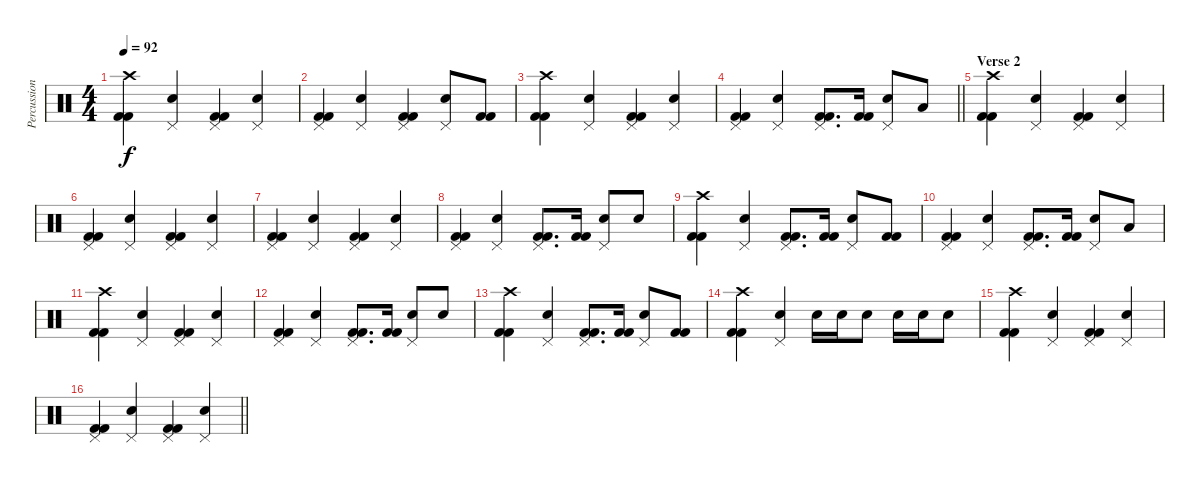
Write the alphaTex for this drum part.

\track ("Percussion" "Percussion") {instrument percussion}
\staff {score}
\articulation defaults
\ts (4 4)
\tempo 92
\clef neutral
\ks c
("Crash high (hit)" "Kick (hit) 2" "Kick (hit) 2").4{dy f} ("Pedal Hi-Hat (hit)" "Electric Snare (hit)").4 ("Pedal Hi-Hat (hit)" "Kick (hit) 2" "Kick (hit) 2").4 ("Pedal Hi-Hat (hit)" "Electric Snare (hit)").4 |
("Pedal Hi-Hat (hit)" "Kick (hit) 2" "Kick (hit) 2").4 ("Pedal Hi-Hat (hit)" "Electric Snare (hit)").4 ("Pedal Hi-Hat (hit)" "Kick (hit) 2" "Kick (hit) 2").4 ("Pedal Hi-Hat (hit)" "Electric Snare (hit)").8 ("Kick (hit) 2" "Kick (hit) 2").8 |
("Crash high (hit)" "Kick (hit) 2" "Kick (hit) 2").4 ("Pedal Hi-Hat (hit)" "Electric Snare (hit)").4 ("Pedal Hi-Hat (hit)" "Kick (hit) 2" "Kick (hit) 2").4 ("Pedal Hi-Hat (hit)" "Electric Snare (hit)").4 |
\barLineRight lightlight
("Pedal Hi-Hat (hit)" "Kick (hit) 2" "Kick (hit) 2").4 ("Pedal Hi-Hat (hit)" "Electric Snare (hit)").4 ("Pedal Hi-Hat (hit)" "Kick (hit) 2" "Kick (hit) 2").8{d} ("Kick (hit) 2" "Kick (hit) 2").16 ("Pedal Hi-Hat (hit)" "Electric Snare (hit)").8 "Low Tom (hit)".8 |
\section ("" "Verse 2")
("Crash high (hit)" "Kick (hit) 2" "Kick (hit) 2").4 ("Pedal Hi-Hat (hit)" "Electric Snare (hit)").4 ("Pedal Hi-Hat (hit)" "Kick (hit) 2" "Kick (hit) 2").4 ("Pedal Hi-Hat (hit)" "Electric Snare (hit)").4 |
("Pedal Hi-Hat (hit)" "Kick (hit) 2" "Kick (hit) 2").4 ("Pedal Hi-Hat (hit)" "Electric Snare (hit)").4 ("Pedal Hi-Hat (hit)" "Kick (hit) 2" "Kick (hit) 2").4 ("Pedal Hi-Hat (hit)" "Electric Snare (hit)").4 |
("Pedal Hi-Hat (hit)" "Kick (hit) 2" "Kick (hit) 2").4 ("Pedal Hi-Hat (hit)" "Electric Snare (hit)").4 ("Pedal Hi-Hat (hit)" "Kick (hit) 2" "Kick (hit) 2").4 ("Pedal Hi-Hat (hit)" "Electric Snare (hit)").4 |
("Pedal Hi-Hat (hit)" "Kick (hit) 2" "Kick (hit) 2").4 ("Pedal Hi-Hat (hit)" "Electric Snare (hit)").4 ("Pedal Hi-Hat (hit)" "Kick (hit) 2" "Kick (hit) 2").8{d} ("Kick (hit) 2" "Kick (hit) 2").16 ("Pedal Hi-Hat (hit)" "Electric Snare (hit)").8 "Electric Snare (hit)".8 |
("Crash high (hit)" "Kick (hit) 2" "Kick (hit) 2").4 ("Pedal Hi-Hat (hit)" "Electric Snare (hit)").4 ("Pedal Hi-Hat (hit)" "Kick (hit) 2" "Kick (hit) 2").8{d} ("Kick (hit) 2" "Kick (hit) 2").16 ("Pedal Hi-Hat (hit)" "Electric Snare (hit)").8 ("Kick (hit) 2" "Kick (hit) 2").8 |
("Pedal Hi-Hat (hit)" "Kick (hit) 2" "Kick (hit) 2").4 ("Pedal Hi-Hat (hit)" "Electric Snare (hit)").4 ("Pedal Hi-Hat (hit)" "Kick (hit) 2" "Kick (hit) 2").8{d} ("Kick (hit) 2" "Kick (hit) 2").16 ("Pedal Hi-Hat (hit)" "Electric Snare (hit)").8 "Low Tom (hit)".8 |
("Crash high (hit)" "Kick (hit) 2" "Kick (hit) 2").4 ("Pedal Hi-Hat (hit)" "Electric Snare (hit)").4 ("Pedal Hi-Hat (hit)" "Kick (hit) 2" "Kick (hit) 2").4 ("Pedal Hi-Hat (hit)" "Electric Snare (hit)").4 |
("Pedal Hi-Hat (hit)" "Kick (hit) 2" "Kick (hit) 2").4 ("Pedal Hi-Hat (hit)" "Electric Snare (hit)").4 ("Pedal Hi-Hat (hit)" "Kick (hit) 2" "Kick (hit) 2").8{d} ("Kick (hit) 2" "Kick (hit) 2").16 ("Pedal Hi-Hat (hit)" "Electric Snare (hit)").8 "Electric Snare (hit)".8 |
("Crash high (hit)" "Kick (hit) 2" "Kick (hit) 2").4 ("Pedal Hi-Hat (hit)" "Electric Snare (hit)").4 ("Pedal Hi-Hat (hit)" "Kick (hit) 2" "Kick (hit) 2").8{d} ("Kick (hit) 2" "Kick (hit) 2").16 ("Pedal Hi-Hat (hit)" "Electric Snare (hit)").8 ("Kick (hit) 2" "Kick (hit) 2").8 |
("Crash high (hit)" "Kick (hit) 2" "Kick (hit) 2").4 ("Pedal Hi-Hat (hit)" "Electric Snare (hit)").4 "Electric Snare (hit)".16 "Electric Snare (hit)".16 "Electric Snare (hit)".8 "Electric Snare (hit)".16 "Electric Snare (hit)".16 "Electric Snare (hit)".8 |
("Crash high (hit)" "Kick (hit) 2" "Kick (hit) 2").4 ("Pedal Hi-Hat (hit)" "Electric Snare (hit)").4 ("Pedal Hi-Hat (hit)" "Kick (hit) 2" "Kick (hit) 2").4 ("Pedal Hi-Hat (hit)" "Electric Snare (hit)").4 |
\barLineRight lightlight
("Pedal Hi-Hat (hit)" "Kick (hit) 2" "Kick (hit) 2").4 ("Pedal Hi-Hat (hit)" "Electric Snare (hit)").4 ("Pedal Hi-Hat (hit)" "Kick (hit) 2" "Kick (hit) 2").4 ("Pedal Hi-Hat (hit)" "Electric Snare (hit)").4
